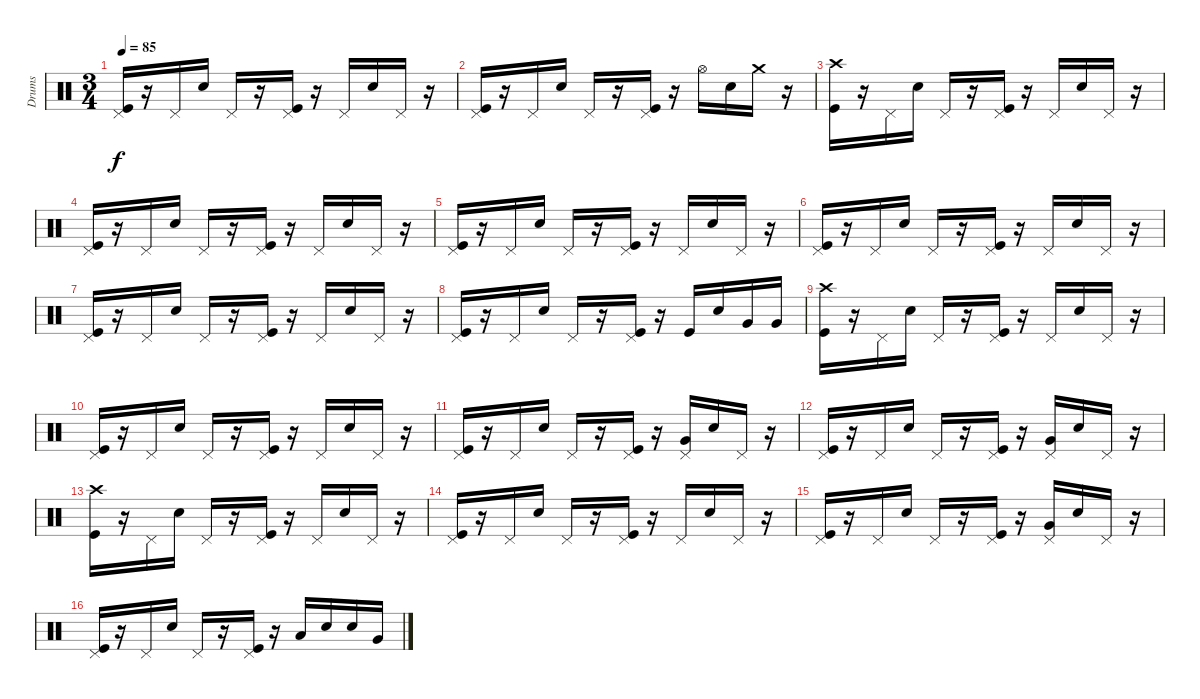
\track ("Drums" "Drums") {instrument percussion}
\staff {score}
\articulation defaults
\ts (3 4)
\tempo 85
\clef neutral
\ks c
("Pedal Hi-Hat (hit)" "Kick (hit)").16{dy f} r.16 "Pedal Hi-Hat (hit)".16 "Electric Snare (hit)".16 "Pedal Hi-Hat (hit)".16 r.16 ("Pedal Hi-Hat (hit)" "Kick (hit)").16 r.16 "Pedal Hi-Hat (hit)".16 "Electric Snare (hit)".16 "Pedal Hi-Hat (hit)".16 r.16 |
("Pedal Hi-Hat (hit)" "Kick (hit)").16 r.16 "Pedal Hi-Hat (hit)".16 "Electric Snare (hit)".16 "Pedal Hi-Hat (hit)".16 r.16 ("Pedal Hi-Hat (hit)" "Kick (hit)").16 r.16 "Hi-Hat (open)".16 "Electric Snare (hit)".16 "Crash medium (hit)".16 r.16 |
("Crash high (hit)" "Kick (hit)").16 r.16 "Pedal Hi-Hat (hit)".16 "Electric Snare (hit)".16 "Pedal Hi-Hat (hit)".16 r.16 ("Pedal Hi-Hat (hit)" "Kick (hit)").16 r.16 "Pedal Hi-Hat (hit)".16 "Electric Snare (hit)".16 "Pedal Hi-Hat (hit)".16 r.16 |
("Pedal Hi-Hat (hit)" "Kick (hit)").16 r.16 "Pedal Hi-Hat (hit)".16 "Electric Snare (hit)".16 "Pedal Hi-Hat (hit)".16 r.16 ("Pedal Hi-Hat (hit)" "Kick (hit)").16 r.16 "Pedal Hi-Hat (hit)".16 "Electric Snare (hit)".16 "Pedal Hi-Hat (hit)".16 r.16 |
("Pedal Hi-Hat (hit)" "Kick (hit)").16 r.16 "Pedal Hi-Hat (hit)".16 "Electric Snare (hit)".16 "Pedal Hi-Hat (hit)".16 r.16 ("Pedal Hi-Hat (hit)" "Kick (hit)").16 r.16 "Pedal Hi-Hat (hit)".16 "Electric Snare (hit)".16 "Pedal Hi-Hat (hit)".16 r.16 |
("Pedal Hi-Hat (hit)" "Kick (hit)").16 r.16 "Pedal Hi-Hat (hit)".16 "Electric Snare (hit)".16 "Pedal Hi-Hat (hit)".16 r.16 ("Pedal Hi-Hat (hit)" "Kick (hit)").16 r.16 "Pedal Hi-Hat (hit)".16 "Electric Snare (hit)".16 "Pedal Hi-Hat (hit)".16 r.16 |
("Pedal Hi-Hat (hit)" "Kick (hit)").16 r.16 "Pedal Hi-Hat (hit)".16 "Electric Snare (hit)".16 "Pedal Hi-Hat (hit)".16 r.16 ("Pedal Hi-Hat (hit)" "Kick (hit)").16 r.16 "Pedal Hi-Hat (hit)".16 "Electric Snare (hit)".16 "Pedal Hi-Hat (hit)".16 r.16 |
("Pedal Hi-Hat (hit)" "Kick (hit)").16 r.16 "Pedal Hi-Hat (hit)".16 "Electric Snare (hit)".16 "Pedal Hi-Hat (hit)".16 r.16 ("Pedal Hi-Hat (hit)" "Kick (hit)").16 r.16 "Kick (hit)".16 "Electric Snare (hit)".16 "Very Low Tom (hit)".16 "Very Low Tom (hit)".16 |
("Crash high (hit)" "Kick (hit)").16 r.16 "Pedal Hi-Hat (hit)".16 "Electric Snare (hit)".16 "Pedal Hi-Hat (hit)".16 r.16 ("Pedal Hi-Hat (hit)" "Kick (hit)").16 r.16 "Pedal Hi-Hat (hit)".16 "Electric Snare (hit)".16 "Pedal Hi-Hat (hit)".16 r.16 |
("Pedal Hi-Hat (hit)" "Kick (hit)").16 r.16 "Pedal Hi-Hat (hit)".16 "Electric Snare (hit)".16 "Pedal Hi-Hat (hit)".16 r.16 ("Pedal Hi-Hat (hit)" "Kick (hit)").16 r.16 "Pedal Hi-Hat (hit)".16 "Electric Snare (hit)".16 "Pedal Hi-Hat (hit)".16 r.16 |
("Pedal Hi-Hat (hit)" "Kick (hit)").16 r.16 "Pedal Hi-Hat (hit)".16 "Electric Snare (hit)".16 "Pedal Hi-Hat (hit)".16 r.16 ("Pedal Hi-Hat (hit)" "Kick (hit)").16 r.16 ("Pedal Hi-Hat (hit)" "Very Low Tom (hit)").16 "Electric Snare (hit)".16 "Pedal Hi-Hat (hit)".16 r.16 |
("Pedal Hi-Hat (hit)" "Kick (hit)").16 r.16 "Pedal Hi-Hat (hit)".16 "Electric Snare (hit)".16 "Pedal Hi-Hat (hit)".16 r.16 ("Pedal Hi-Hat (hit)" "Kick (hit)").16 r.16 ("Pedal Hi-Hat (hit)" "Very Low Tom (hit)").16 "Electric Snare (hit)".16 "Pedal Hi-Hat (hit)".16 r.16 |
("Crash high (hit)" "Kick (hit)").16 r.16 "Pedal Hi-Hat (hit)".16 "Electric Snare (hit)".16 "Pedal Hi-Hat (hit)".16 r.16 ("Pedal Hi-Hat (hit)" "Kick (hit)").16 r.16 "Pedal Hi-Hat (hit)".16 "Electric Snare (hit)".16 "Pedal Hi-Hat (hit)".16 r.16 |
("Pedal Hi-Hat (hit)" "Kick (hit)").16 r.16 "Pedal Hi-Hat (hit)".16 "Electric Snare (hit)".16 "Pedal Hi-Hat (hit)".16 r.16 ("Pedal Hi-Hat (hit)" "Kick (hit)").16 r.16 "Pedal Hi-Hat (hit)".16 "Electric Snare (hit)".16 "Pedal Hi-Hat (hit)".16 r.16 |
("Pedal Hi-Hat (hit)" "Kick (hit)").16 r.16 "Pedal Hi-Hat (hit)".16 "Electric Snare (hit)".16 "Pedal Hi-Hat (hit)".16 r.16 ("Pedal Hi-Hat (hit)" "Kick (hit)").16 r.16 ("Pedal Hi-Hat (hit)" "Very Low Tom (hit)").16 "Electric Snare (hit)".16 "Pedal Hi-Hat (hit)".16 r.16 |
("Pedal Hi-Hat (hit)" "Kick (hit)").16 r.16 "Pedal Hi-Hat (hit)".16 "Electric Snare (hit)".16 "Pedal Hi-Hat (hit)".16 r.16 ("Pedal Hi-Hat (hit)" "Kick (hit)").16 r.16 "Low Floor Tom (hit)".16 "Electric Snare (hit)".16 "Electric Snare (hit)".16 "Very Low Tom (hit)".16
